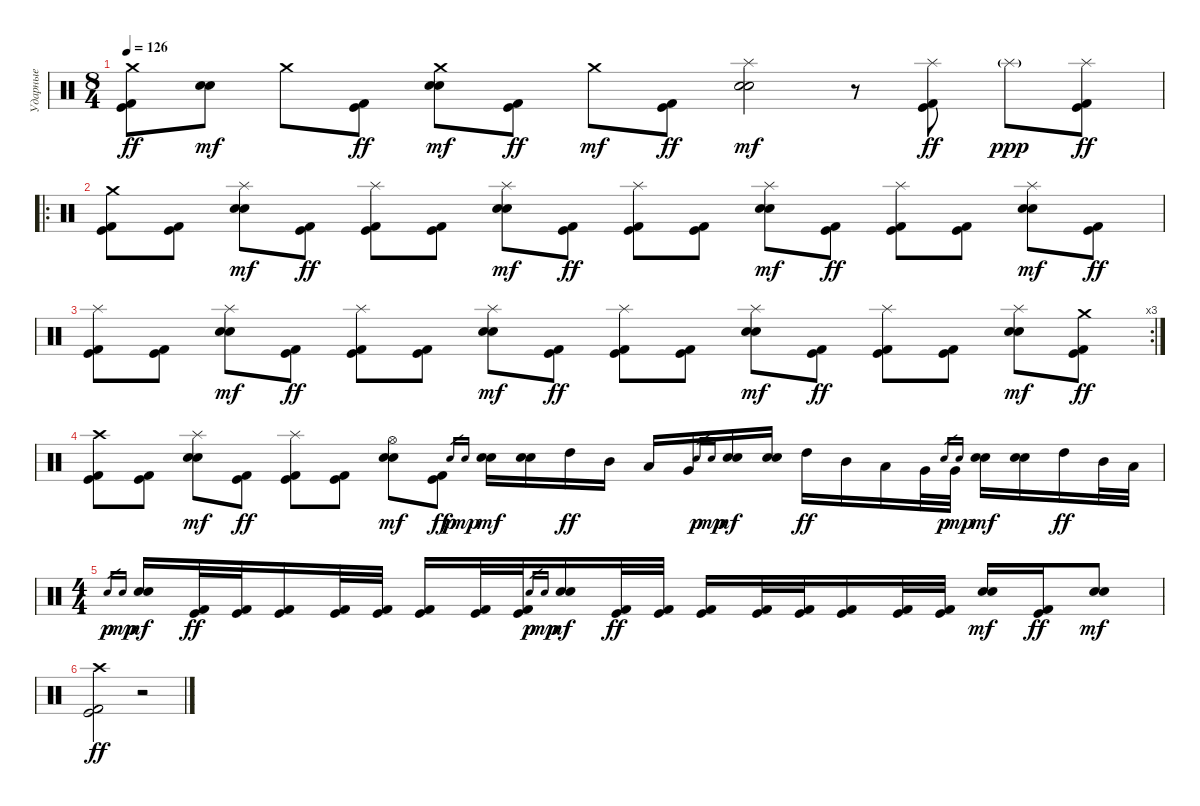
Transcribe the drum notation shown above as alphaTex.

\track ("Ударные" "Ударные") {instrument percussion}
\staff {score}
\articulation defaults
\ts (8 4)
\tempo 126
\clef neutral
\ks c
("Crash medium (hit)" "Kick (hit) 2" "Kick (hit)").8{dy ff} ("Snare (hit) 2" "Electric Snare (hit)").8{dy mf} "Crash medium (hit)".8 ("Kick (hit) 2" "Kick (hit)").8{dy ff} ("Crash medium (hit)" "Snare (hit) 2" "Electric Snare (hit)").8{dy mf} ("Kick (hit) 2" "Kick (hit)").8{dy ff} "Crash medium (hit)".8{dy mf} ("Kick (hit) 2" "Kick (hit)").8{dy ff} ("Splash (hit)" "Snare (hit) 2" "Electric Snare (hit)").2{dy mf} r.8 ("Splash (hit)" "Kick (hit) 2" "Kick (hit)").8{dy ff} "Splash (hit)"{g}.8{dy ppp} ("Splash (hit)" "Kick (hit) 2" "Kick (hit)").8{dy ff} |
\ro
("Crash medium (hit)" "Kick (hit) 2" "Kick (hit)").8 ("Kick (hit) 2" "Kick (hit)").8 ("Splash (hit)" "Snare (hit) 2" "Electric Snare (hit)").8{dy mf} ("Kick (hit) 2" "Kick (hit)").8{dy ff} ("Splash (hit)" "Kick (hit) 2" "Kick (hit)").8 ("Kick (hit) 2" "Kick (hit)").8 ("Splash (hit)" "Snare (hit) 2" "Electric Snare (hit)").8{dy mf} ("Kick (hit) 2" "Kick (hit)").8{dy ff} ("Splash (hit)" "Kick (hit) 2" "Kick (hit)").8 ("Kick (hit) 2" "Kick (hit)").8 ("Splash (hit)" "Snare (hit) 2" "Electric Snare (hit)").8{dy mf} ("Kick (hit) 2" "Kick (hit)").8{dy ff} ("Splash (hit)" "Kick (hit) 2" "Kick (hit)").8 ("Kick (hit) 2" "Kick (hit)").8 ("Splash (hit)" "Snare (hit) 2" "Electric Snare (hit)").8{dy mf} ("Kick (hit) 2" "Kick (hit)").8{dy ff} |
\rc 3
("Splash (hit)" "Kick (hit) 2" "Kick (hit)").8 ("Kick (hit) 2" "Kick (hit)").8 ("Splash (hit)" "Snare (hit) 2" "Electric Snare (hit)").8{dy mf} ("Kick (hit) 2" "Kick (hit)").8{dy ff} ("Splash (hit)" "Kick (hit) 2" "Kick (hit)").8 ("Kick (hit) 2" "Kick (hit)").8 ("Splash (hit)" "Snare (hit) 2" "Electric Snare (hit)").8{dy mf} ("Kick (hit) 2" "Kick (hit)").8{dy ff} ("Splash (hit)" "Kick (hit) 2" "Kick (hit)").8 ("Kick (hit) 2" "Kick (hit)").8 ("Splash (hit)" "Snare (hit) 2" "Electric Snare (hit)").8{dy mf} ("Kick (hit) 2" "Kick (hit)").8{dy ff} ("Splash (hit)" "Kick (hit) 2" "Kick (hit)").8 ("Kick (hit) 2" "Kick (hit)").8 ("Splash (hit)" "Snare (hit) 2" "Electric Snare (hit)").8{dy mf} ("Crash medium (hit)" "Kick (hit) 2" "Kick (hit)").8{dy ff} |
("Crash high (hit)" "Kick (hit) 2" "Kick (hit)").8 ("Kick (hit) 2" "Kick (hit)").8 ("Splash (hit)" "Snare (hit) 2" "Electric Snare (hit)").8{dy mf} ("Kick (hit) 2" "Kick (hit)").8{dy ff} ("Splash (hit)" "Kick (hit) 2" "Kick (hit)").8 ("Kick (hit) 2" "Kick (hit)").8 ("Hi-Hat (open)" "Snare (hit) 2" "Electric Snare (hit)").8{dy mf} ("Kick (hit) 2" "Kick (hit)").8{dy ff} "Snare (hit) 2".16{gr dy p} "Electric Snare (hit)".16{gr dy mp} ("Snare (hit) 2" "Electric Snare (hit)").16{dy mf} ("Snare (hit) 2" "Electric Snare (hit)").16 "High Tom (hit)".16{dy ff} "Mid Tom (hit)".16 "Low Tom (hit)".16 "Very Low Tom (hit)".16 "Snare (hit) 2".16{gr dy p} "Electric Snare (hit)".16{gr dy mp} ("Snare (hit) 2" "Electric Snare (hit)").16{dy mf} ("Snare (hit) 2" "Electric Snare (hit)").16 "High Tom (hit)".16{dy ff} "Mid Tom (hit)".16 "Low Tom (hit)".16 "Very Low Tom (hit)".32 "Very Low Tom (hit)".32 "Snare (hit) 2".16{gr dy p} "Electric Snare (hit)".16{gr dy mp} ("Snare (hit) 2" "Electric Snare (hit)").16{dy mf} ("Snare (hit) 2" "Electric Snare (hit)").16 "High Tom (hit)".16{dy ff} "Mid Tom (hit)".32 "Low Tom (hit)".32 |
\ts (4 4)
"Snare (hit) 2".16{gr dy p} "Electric Snare (hit)".16{gr dy mp} ("Snare (hit) 2" "Electric Snare (hit)").16{dy mf} ("Kick (hit) 2" "Kick (hit)").32{dy ff} ("Kick (hit) 2" "Kick (hit)").32 ("Kick (hit) 2" "Kick (hit)").16 ("Kick (hit) 2" "Kick (hit)").32 ("Kick (hit) 2" "Kick (hit)").32 ("Kick (hit) 2" "Kick (hit)").16 ("Kick (hit) 2" "Kick (hit)").32 ("Kick (hit) 2" "Kick (hit)").32 "Snare (hit) 2".16{gr dy p} "Electric Snare (hit)".16{gr dy mp} ("Snare (hit) 2" "Electric Snare (hit)").16{dy mf} ("Kick (hit) 2" "Kick (hit)").32{dy ff} ("Kick (hit) 2" "Kick (hit)").32 ("Kick (hit) 2" "Kick (hit)").16 ("Kick (hit) 2" "Kick (hit)").32 ("Kick (hit) 2" "Kick (hit)").32 ("Kick (hit) 2" "Kick (hit)").16 ("Kick (hit) 2" "Kick (hit)").32 ("Kick (hit) 2" "Kick (hit)").32 ("Snare (hit) 2" "Electric Snare (hit)").16{dy mf} ("Kick (hit) 2" "Kick (hit)").16{dy ff} ("Snare (hit) 2" "Electric Snare (hit)").8{dy mf} |
("Crash high (hit)" "Kick (hit) 2" "Kick (hit)").2{dy ff} r.2
